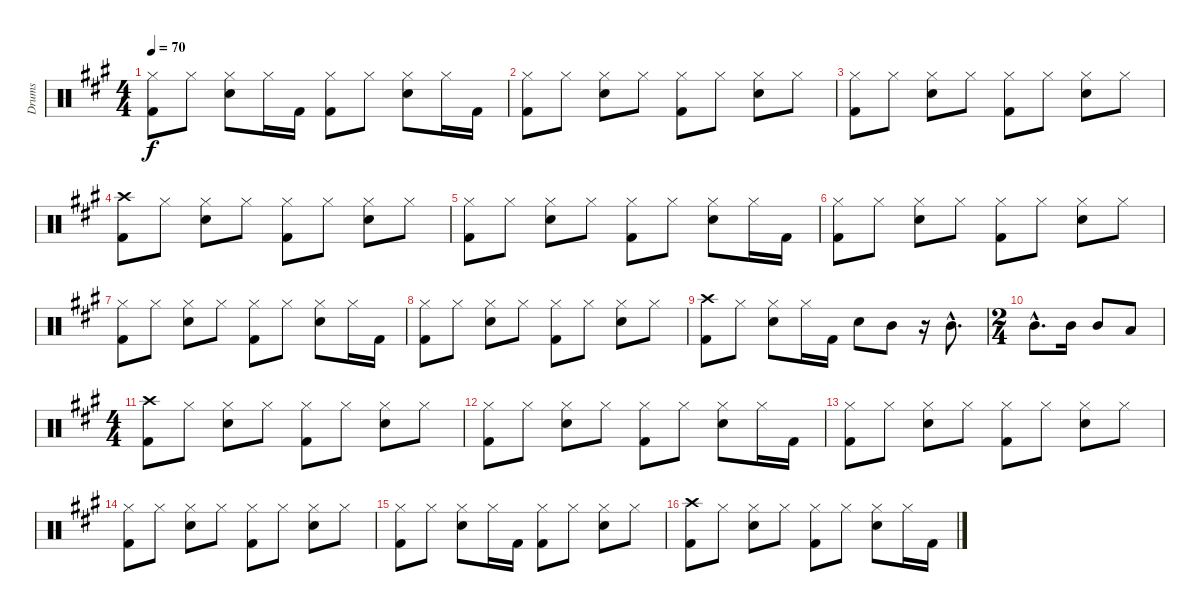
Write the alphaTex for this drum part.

\track ("Drums" "Drums") {instrument percussion}
\staff {score}
\articulation defaults
\ts (4 4)
\tempo 70
\clef neutral
\ks a
("Hi-Hat (closed)" "Kick (hit) 2").8{dy f} "Hi-Hat (closed)".8 ("Hi-Hat (closed)" "Electric Snare (hit)").8 "Hi-Hat (closed)".16 "Kick (hit) 2".16 ("Hi-Hat (closed)" "Kick (hit) 2").8 "Hi-Hat (closed)".8 ("Hi-Hat (closed)" "Electric Snare (hit)").8 "Hi-Hat (closed)".16 "Kick (hit) 2".16 |
("Hi-Hat (closed)" "Kick (hit) 2").8 "Hi-Hat (closed)".8 ("Hi-Hat (closed)" "Electric Snare (hit)").8 "Hi-Hat (closed)".8 ("Hi-Hat (closed)" "Kick (hit) 2").8 "Hi-Hat (closed)".8 ("Hi-Hat (closed)" "Electric Snare (hit)").8 "Hi-Hat (closed)".8 |
("Hi-Hat (closed)" "Kick (hit) 2").8 "Hi-Hat (closed)".8 ("Hi-Hat (closed)" "Electric Snare (hit)").8 "Hi-Hat (closed)".8 ("Hi-Hat (closed)" "Kick (hit) 2").8 "Hi-Hat (closed)".8 ("Hi-Hat (closed)" "Electric Snare (hit)").8 "Hi-Hat (closed)".8 |
("Crash high (hit)" "Kick (hit) 2").8 "Hi-Hat (closed)".8 ("Hi-Hat (closed)" "Electric Snare (hit)").8 "Hi-Hat (closed)".8 ("Hi-Hat (closed)" "Kick (hit) 2").8 "Hi-Hat (closed)".8 ("Hi-Hat (closed)" "Electric Snare (hit)").8 "Hi-Hat (closed)".8 |
("Hi-Hat (closed)" "Kick (hit) 2").8 "Hi-Hat (closed)".8 ("Hi-Hat (closed)" "Electric Snare (hit)").8 "Hi-Hat (closed)".8 ("Hi-Hat (closed)" "Kick (hit) 2").8 "Hi-Hat (closed)".8 ("Hi-Hat (closed)" "Electric Snare (hit)").8 "Hi-Hat (closed)".16 "Kick (hit) 2".16 |
("Hi-Hat (closed)" "Kick (hit) 2").8 "Hi-Hat (closed)".8 ("Hi-Hat (closed)" "Electric Snare (hit)").8 "Hi-Hat (closed)".8 ("Hi-Hat (closed)" "Kick (hit) 2").8 "Hi-Hat (closed)".8 ("Hi-Hat (closed)" "Electric Snare (hit)").8 "Hi-Hat (closed)".8 |
("Hi-Hat (closed)" "Kick (hit) 2").8 "Hi-Hat (closed)".8 ("Hi-Hat (closed)" "Electric Snare (hit)").8 "Hi-Hat (closed)".8 ("Hi-Hat (closed)" "Kick (hit) 2").8 "Hi-Hat (closed)".8 ("Hi-Hat (closed)" "Electric Snare (hit)").8 "Hi-Hat (closed)".16 "Kick (hit) 2".16 |
("Hi-Hat (closed)" "Kick (hit) 2").8 "Hi-Hat (closed)".8 ("Hi-Hat (closed)" "Electric Snare (hit)").8 "Hi-Hat (closed)".8 ("Hi-Hat (closed)" "Kick (hit) 2").8 "Hi-Hat (closed)".8 ("Hi-Hat (closed)" "Electric Snare (hit)").8 "Hi-Hat (closed)".8 |
("Crash high (hit)" "Kick (hit) 2").8 "Hi-Hat (closed)".8 ("Hi-Hat (closed)" "Electric Snare (hit)").8 "Hi-Hat (closed)".16 "Kick (hit) 2".16 "Electric Snare (hit)".8 "Mid Tom (hit)".8 r.16 "Mid Tom (hit)"{hac}.8{d} |
\ts (2 4)
"Mid Tom (hit)"{hac}.8{d} "Mid Tom (hit)".16 "Mid Tom (hit)".8 "Low Tom (hit)".8 |
\ts (4 4)
("Crash high (hit)" "Kick (hit) 2").8 "Hi-Hat (closed)".8 ("Hi-Hat (closed)" "Electric Snare (hit)").8 "Hi-Hat (closed)".8 ("Hi-Hat (closed)" "Kick (hit) 2").8 "Hi-Hat (closed)".8 ("Hi-Hat (closed)" "Electric Snare (hit)").8 "Hi-Hat (closed)".8 |
("Hi-Hat (closed)" "Kick (hit) 2").8 "Hi-Hat (closed)".8 ("Hi-Hat (closed)" "Electric Snare (hit)").8 "Hi-Hat (closed)".8 ("Hi-Hat (closed)" "Kick (hit) 2").8 "Hi-Hat (closed)".8 ("Hi-Hat (closed)" "Electric Snare (hit)").8 "Hi-Hat (closed)".16 "Kick (hit) 2".16 |
("Hi-Hat (closed)" "Kick (hit) 2").8 "Hi-Hat (closed)".8 ("Hi-Hat (closed)" "Electric Snare (hit)").8 "Hi-Hat (closed)".8 ("Hi-Hat (closed)" "Kick (hit) 2").8 "Hi-Hat (closed)".8 ("Hi-Hat (closed)" "Electric Snare (hit)").8 "Hi-Hat (closed)".8 |
("Hi-Hat (closed)" "Kick (hit) 2").8 "Hi-Hat (closed)".8 ("Hi-Hat (closed)" "Electric Snare (hit)").8 "Hi-Hat (closed)".8 ("Hi-Hat (closed)" "Kick (hit) 2").8 "Hi-Hat (closed)".8 ("Hi-Hat (closed)" "Electric Snare (hit)").8 "Hi-Hat (closed)".8 |
("Hi-Hat (closed)" "Kick (hit) 2").8 "Hi-Hat (closed)".8 ("Hi-Hat (closed)" "Electric Snare (hit)").8 "Hi-Hat (closed)".16 "Kick (hit) 2".16 ("Hi-Hat (closed)" "Kick (hit) 2").8 "Hi-Hat (closed)".8 ("Hi-Hat (closed)" "Electric Snare (hit)").8 "Hi-Hat (closed)".8 |
("Crash high (hit)" "Kick (hit) 2").8 "Hi-Hat (closed)".8 ("Hi-Hat (closed)" "Electric Snare (hit)").8 "Hi-Hat (closed)".8 ("Hi-Hat (closed)" "Kick (hit) 2").8 "Hi-Hat (closed)".8 ("Hi-Hat (closed)" "Electric Snare (hit)").8 "Hi-Hat (closed)".16 "Kick (hit) 2".16
